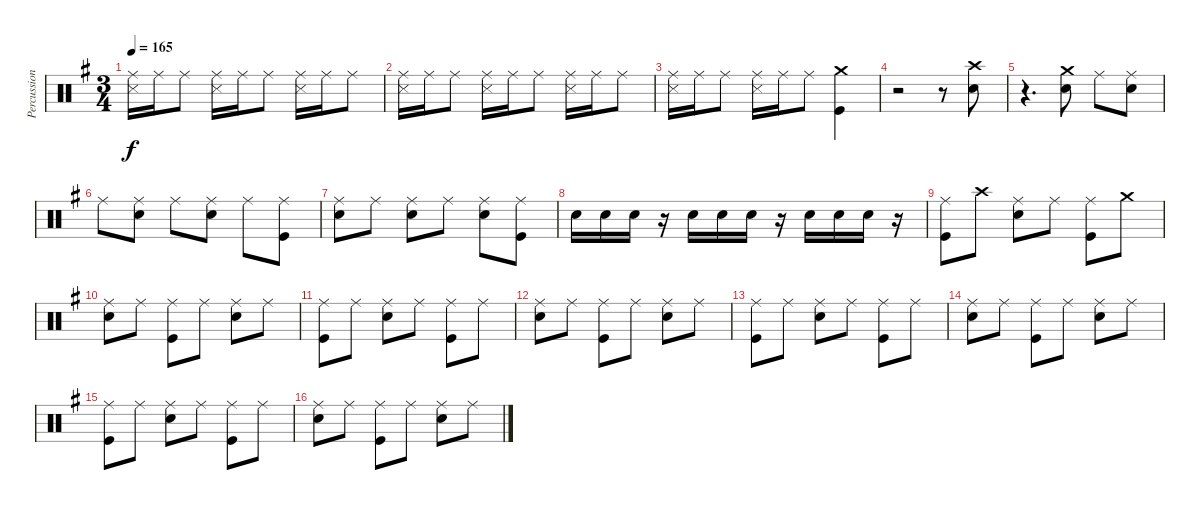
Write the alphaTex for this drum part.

\track ("Percussion" "Percussion") {instrument percussion}
\staff {score}
\articulation defaults
\ts (3 4)
\tempo 165
\clef neutral
\ks g
("Ride (middle)" "Snare (side stick) 3").16{dy f} "Ride (middle)".16 "Ride (middle)".8 ("Ride (middle)" "Snare (side stick) 3").16 "Ride (middle)".16 "Ride (middle)".8 ("Ride (middle)" "Snare (side stick) 3").16 "Ride (middle)".16 "Ride (middle)".8 |
("Ride (middle)" "Snare (side stick) 3").16 "Ride (middle)".16 "Ride (middle)".8 ("Ride (middle)" "Snare (side stick) 3").16 "Ride (middle)".16 "Ride (middle)".8 ("Ride (middle)" "Snare (side stick) 3").16 "Ride (middle)".16 "Ride (middle)".8 |
("Ride (middle)" "Snare (side stick) 3").16 "Ride (middle)".16 "Ride (middle)".8 ("Ride (middle)" "Snare (side stick) 3").16 "Ride (middle)".16 "Ride (middle)".8 ("Crash medium (hit)" "Kick (hit)").4 |
r.2 r.8 ("Crash high (hit)" "Snare (hit) 2").8 |
r.4{d} ("Crash medium (hit)" "Snare (hit) 2").8 "Ride (middle)".8 ("Ride (middle)" "Snare (hit) 2").8 |
"Ride (middle)".8 ("Ride (middle)" "Snare (hit) 2").8 "Ride (middle)".8 ("Ride (middle)" "Snare (hit) 2").8 "Ride (middle)".8 ("Ride (middle)" "Kick (hit)").8 |
("Ride (middle)" "Snare (hit) 2").8 "Ride (middle)".8 ("Ride (middle)" "Snare (hit) 2").8 "Ride (middle)".8 ("Ride (middle)" "Snare (hit) 2").8 ("Ride (middle)" "Kick (hit)").8 |
"Snare (hit) 2".16 "Snare (hit) 2".16 "Snare (hit) 2".16 r.16 "Snare (hit) 2".16 "Snare (hit) 2".16 "Snare (hit) 2".16 r.16 "Snare (hit) 2".16 "Snare (hit) 2".16 "Snare (hit) 2".16 r.16 |
("Ride (middle)" "Kick (hit)").8 "Crash high (hit)".8 ("Ride (middle)" "Snare (hit) 2").8 "Ride (middle)".8 ("Ride (middle)" "Kick (hit)").8 "Crash medium (hit)".8 |
("Ride (middle)" "Snare (hit) 2").8 "Ride (middle)".8 ("Ride (middle)" "Kick (hit)").8 "Ride (middle)".8 ("Ride (middle)" "Snare (hit) 2").8 "Ride (middle)".8 |
("Ride (middle)" "Kick (hit)").8 "Ride (middle)".8 ("Ride (middle)" "Snare (hit) 2").8 "Ride (middle)".8 ("Ride (middle)" "Kick (hit)").8 "Ride (middle)".8 |
("Ride (middle)" "Snare (hit) 2").8 "Ride (middle)".8 ("Ride (middle)" "Kick (hit)").8 "Ride (middle)".8 ("Ride (middle)" "Snare (hit) 2").8 "Ride (middle)".8 |
("Ride (middle)" "Kick (hit)").8 "Ride (middle)".8 ("Ride (middle)" "Snare (hit) 2").8 "Ride (middle)".8 ("Ride (middle)" "Kick (hit)").8 "Ride (middle)".8 |
("Ride (middle)" "Snare (hit) 2").8 "Ride (middle)".8 ("Ride (middle)" "Kick (hit)").8 "Ride (middle)".8 ("Ride (middle)" "Snare (hit) 2").8 "Ride (middle)".8 |
("Ride (middle)" "Kick (hit)").8 "Ride (middle)".8 ("Ride (middle)" "Snare (hit) 2").8 "Ride (middle)".8 ("Ride (middle)" "Kick (hit)").8 "Ride (middle)".8 |
("Ride (middle)" "Snare (hit) 2").8 "Ride (middle)".8 ("Ride (middle)" "Kick (hit)").8 "Ride (middle)".8 ("Ride (middle)" "Snare (hit) 2").8 "Ride (middle)".8
